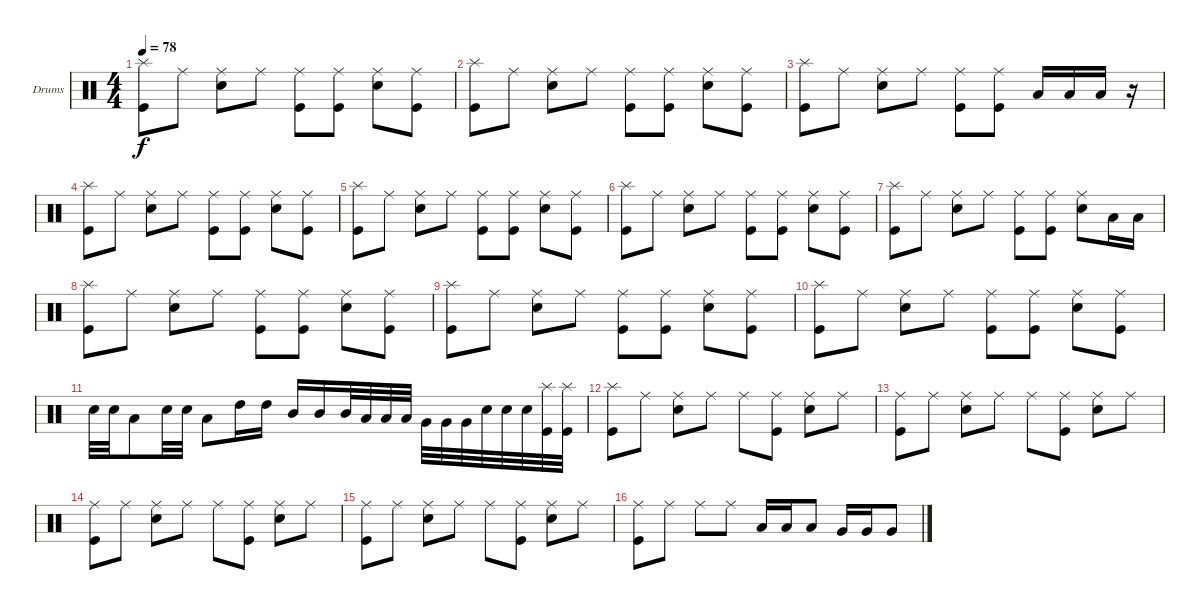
\bracketExtendMode groupsimilarinstruments
\firstSystemTrackNameOrientation horizontal
\otherSystemsTrackNameOrientation horizontal
\track ("Drumkit" "Drums") {instrument percussion}
\staff {score}
\articulation defaults
\ts (4 4)
\tempo 78
\clef neutral
\ks c
("Splash (hit)" "Kick (hit)").8{dy f} "Ride (middle)".8 ("Ride (middle)" "Snare (hit) 2").8 "Ride (middle)".8 ("Ride (middle)" "Kick (hit)").8 ("Ride (middle)" "Kick (hit)").8 ("Ride (middle)" "Snare (hit) 2").8 ("Ride (middle)" "Kick (hit)").8 |
("Splash (hit)" "Kick (hit)").8 "Ride (middle)".8 ("Ride (middle)" "Snare (hit) 2").8 "Ride (middle)".8 ("Ride (middle)" "Kick (hit)").8 ("Ride (middle)" "Kick (hit)").8 ("Ride (middle)" "Snare (hit) 2").8 ("Ride (middle)" "Kick (hit)").8 |
("Splash (hit)" "Kick (hit)").8 "Ride (middle)".8 ("Ride (middle)" "Snare (hit) 2").8 "Ride (middle)".8 ("Ride (middle)" "Kick (hit)").8 ("Ride (middle)" "Kick (hit)").8 "Low Tom (hit)".16 "Low Tom (hit)".16 "Low Tom (hit)".16 r.16 |
("Splash (hit)" "Kick (hit)").8 "Ride (middle)".8 ("Ride (middle)" "Snare (hit) 2").8 "Ride (middle)".8 ("Ride (middle)" "Kick (hit)").8 ("Ride (middle)" "Kick (hit)").8 ("Ride (middle)" "Snare (hit) 2").8 ("Ride (middle)" "Kick (hit)").8 |
("Splash (hit)" "Kick (hit)").8 "Ride (middle)".8 ("Ride (middle)" "Snare (hit) 2").8 "Ride (middle)".8 ("Ride (middle)" "Kick (hit)").8 ("Ride (middle)" "Kick (hit)").8 ("Ride (middle)" "Snare (hit) 2").8 ("Ride (middle)" "Kick (hit)").8 |
("Splash (hit)" "Kick (hit)").8 "Ride (middle)".8 ("Ride (middle)" "Snare (hit) 2").8 "Ride (middle)".8 ("Ride (middle)" "Kick (hit)").8 ("Ride (middle)" "Kick (hit)").8 ("Ride (middle)" "Snare (hit) 2").8 ("Ride (middle)" "Kick (hit)").8 |
("Splash (hit)" "Kick (hit)").8 "Ride (middle)".8 ("Ride (middle)" "Snare (hit) 2").8 "Ride (middle)".8 ("Ride (middle)" "Kick (hit)").8 ("Ride (middle)" "Kick (hit)").8 ("Ride (middle)" "Snare (hit) 2").8 "Low Tom (hit)".16 "Low Tom (hit)".16 |
("Splash (hit)" "Kick (hit)").8 "Ride (middle)".8 ("Ride (middle)" "Snare (hit) 2").8 "Ride (middle)".8 ("Ride (middle)" "Kick (hit)").8 ("Ride (middle)" "Kick (hit)").8 ("Ride (middle)" "Snare (hit) 2").8 ("Ride (middle)" "Kick (hit)").8 |
("Splash (hit)" "Kick (hit)").8 "Ride (middle)".8 ("Ride (middle)" "Snare (hit) 2").8 "Ride (middle)".8 ("Ride (middle)" "Kick (hit)").8 ("Ride (middle)" "Kick (hit)").8 ("Ride (middle)" "Snare (hit) 2").8 ("Ride (middle)" "Kick (hit)").8 |
("Splash (hit)" "Kick (hit)").8 "Ride (middle)".8 ("Ride (middle)" "Snare (hit) 2").8 "Ride (middle)".8 ("Ride (middle)" "Kick (hit)").8 ("Ride (middle)" "Kick (hit)").8 ("Ride (middle)" "Snare (hit) 2").8 ("Ride (middle)" "Kick (hit)").8 |
"Snare (hit) 2".32 "Snare (hit) 2".32 "Low Tom (hit)".8 "Snare (hit) 2".32 "Snare (hit) 2".32 "Low Tom (hit)".8 "High Tom (hit)".16 "High Tom (hit)".16 "Mid Tom (hit)".16 "Mid Tom (hit)".16 "Mid Tom (hit)".32 "Low Tom (hit)".32 "Low Tom (hit)".32 "Low Tom (hit)".32 "Very Low Tom (hit)".32 "Very Low Tom (hit)".32 "Very Low Tom (hit)".32 "Snare (hit) 2".32 "Snare (hit) 2".32 "Snare (hit) 2".32 ("Splash (hit)" "Kick (hit)").32 ("Splash (hit)" "Kick (hit)").32 |
("Splash (hit)" "Kick (hit)").8 "Ride (middle)".8 ("Ride (middle)" "Snare (hit) 2").8 "Ride (middle)".8 "Ride (middle)".8 ("Ride (middle)" "Kick (hit)").8 ("Ride (middle)" "Snare (hit) 2").8 "Ride (middle)".8 |
("Ride (middle)" "Kick (hit)").8 "Ride (middle)".8 ("Ride (middle)" "Snare (hit) 2").8 "Ride (middle)".8 "Ride (middle)".8 ("Ride (middle)" "Kick (hit)").8 ("Ride (middle)" "Snare (hit) 2").8 "Ride (middle)".8 |
("Ride (middle)" "Kick (hit)").8 "Ride (middle)".8 ("Ride (middle)" "Snare (hit) 2").8 "Ride (middle)".8 "Ride (middle)".8 ("Ride (middle)" "Kick (hit)").8 ("Ride (middle)" "Snare (hit) 2").8 "Ride (middle)".8 |
("Ride (middle)" "Kick (hit)").8 "Ride (middle)".8 ("Ride (middle)" "Snare (hit) 2").8 "Ride (middle)".8 "Ride (middle)".8 ("Ride (middle)" "Kick (hit)").8 ("Ride (middle)" "Snare (hit) 2").8 "Ride (middle)".8 |
("Ride (middle)" "Kick (hit)").8 "Ride (middle)".8 "Ride (middle)".8 "Ride (middle)".8 "Low Tom (hit)".16 "Low Tom (hit)".16 "Low Tom (hit)".8 "Very Low Tom (hit)".16 "Very Low Tom (hit)".16 "Very Low Tom (hit)".8
